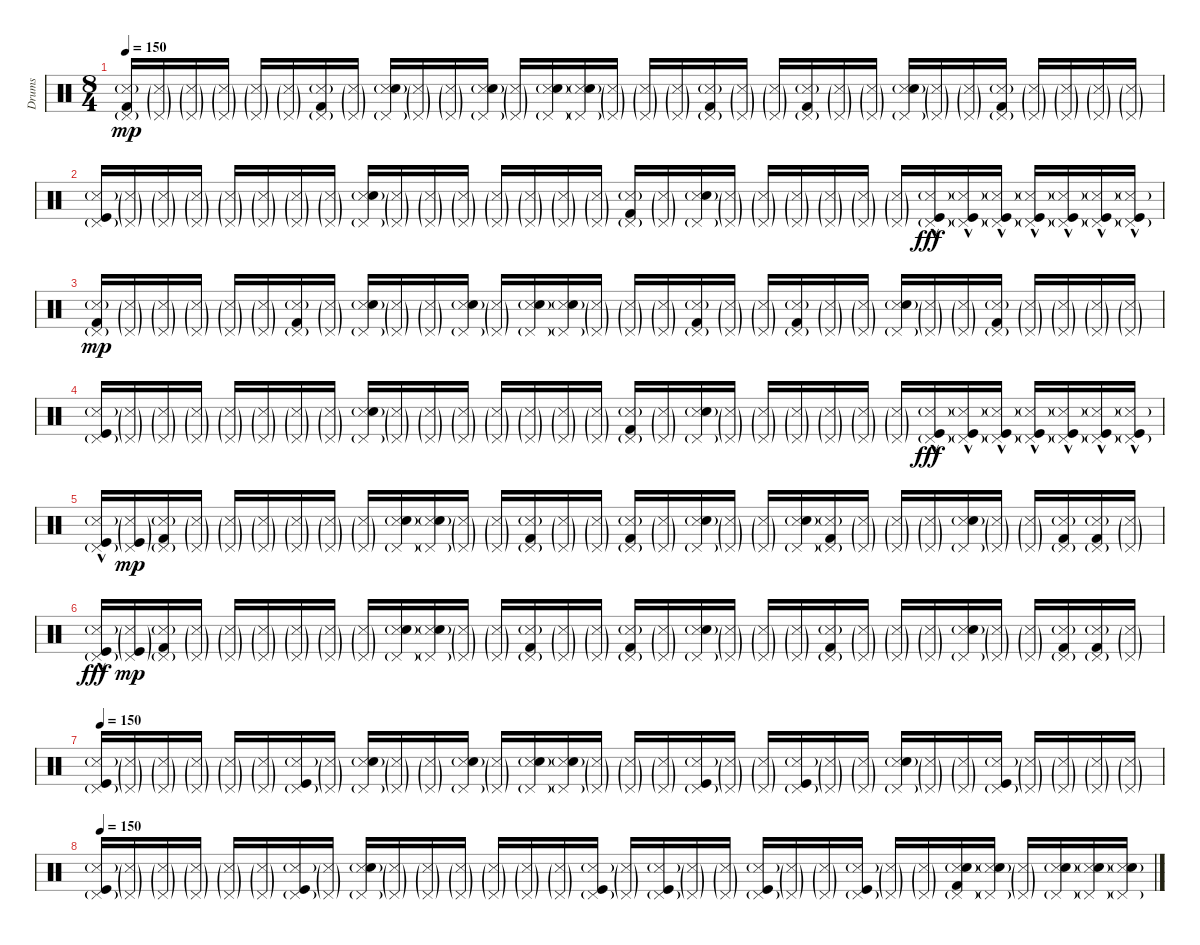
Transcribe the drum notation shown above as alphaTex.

\track ("Drums" "Drums") {instrument percussion}
\staff {score}
\articulation defaults
\ts (8 4)
\tempo 150
\clef neutral
\ks c
("Pedal Hi-Hat (hit)"{g} "Snare (side stick) 3"{g} "Kick (hit) 2").16{dy mp} ("Pedal Hi-Hat (hit)"{g} "Snare (side stick) 3"{g}).16 ("Pedal Hi-Hat (hit)"{g} "Snare (side stick) 3"{g}).16 ("Pedal Hi-Hat (hit)"{g} "Snare (side stick) 3"{g}).16 ("Pedal Hi-Hat (hit)"{g} "Snare (side stick) 3"{g}).16 ("Pedal Hi-Hat (hit)"{g} "Snare (side stick) 3"{g}).16 ("Pedal Hi-Hat (hit)"{g} "Snare (side stick) 3"{g} "Kick (hit) 2").16 ("Pedal Hi-Hat (hit)"{g} "Snare (side stick) 3"{g}).16 ("Pedal Hi-Hat (hit)"{g} "Snare (side stick) 3"{g} "Electric Snare (hit)").16 ("Pedal Hi-Hat (hit)"{g} "Snare (side stick) 3"{g}).16 ("Pedal Hi-Hat (hit)"{g} "Snare (side stick) 3"{g}).16 ("Pedal Hi-Hat (hit)"{g} "Snare (side stick) 3"{g} "Electric Snare (hit)").16 ("Pedal Hi-Hat (hit)"{g} "Snare (side stick) 3"{g}).16 ("Pedal Hi-Hat (hit)"{g} "Snare (side stick) 3"{g} "Electric Snare (hit)").16 ("Pedal Hi-Hat (hit)"{g} "Snare (side stick) 3"{g} "Electric Snare (hit)").16 ("Pedal Hi-Hat (hit)"{g} "Snare (side stick) 3"{g}).16 ("Pedal Hi-Hat (hit)"{g} "Snare (side stick) 3"{g}).16 ("Pedal Hi-Hat (hit)"{g} "Snare (side stick) 3"{g}).16 ("Pedal Hi-Hat (hit)"{g} "Snare (side stick) 3"{g} "Kick (hit) 2").16 ("Pedal Hi-Hat (hit)"{g} "Snare (side stick) 3"{g}).16 ("Pedal Hi-Hat (hit)"{g} "Snare (side stick) 3"{g}).16 ("Pedal Hi-Hat (hit)"{g} "Snare (side stick) 3"{g} "Kick (hit) 2").16 ("Pedal Hi-Hat (hit)"{g} "Snare (side stick) 3"{g}).16 ("Pedal Hi-Hat (hit)"{g} "Snare (side stick) 3"{g}).16 ("Pedal Hi-Hat (hit)"{g} "Snare (side stick) 3"{g} "Electric Snare (hit)").16 ("Pedal Hi-Hat (hit)"{g} "Snare (side stick) 3"{g}).16 ("Pedal Hi-Hat (hit)"{g} "Snare (side stick) 3"{g}).16 ("Pedal Hi-Hat (hit)"{g} "Snare (side stick) 3"{g} "Kick (hit) 2").16 ("Pedal Hi-Hat (hit)"{g} "Snare (side stick) 3"{g}).16 ("Pedal Hi-Hat (hit)"{g} "Snare (side stick) 3"{g}).16 ("Pedal Hi-Hat (hit)"{g} "Snare (side stick) 3"{g}).16 ("Pedal Hi-Hat (hit)"{g} "Snare (side stick) 3"{g}).16 |
("Pedal Hi-Hat (hit)"{g} "Snare (side stick) 3"{g} "Kick (hit)").16 ("Pedal Hi-Hat (hit)"{g} "Snare (side stick) 3"{g}).16 ("Pedal Hi-Hat (hit)"{g} "Snare (side stick) 3"{g}).16 ("Pedal Hi-Hat (hit)"{g} "Snare (side stick) 3"{g}).16 ("Pedal Hi-Hat (hit)"{g} "Snare (side stick) 3"{g}).16 ("Pedal Hi-Hat (hit)"{g} "Snare (side stick) 3"{g}).16 ("Pedal Hi-Hat (hit)"{g} "Snare (side stick) 3"{g}).16 ("Pedal Hi-Hat (hit)"{g} "Snare (side stick) 3"{g}).16 ("Pedal Hi-Hat (hit)"{g} "Snare (side stick) 3"{g} "Electric Snare (hit)").16 ("Pedal Hi-Hat (hit)"{g} "Snare (side stick) 3"{g}).16 ("Pedal Hi-Hat (hit)"{g} "Snare (side stick) 3"{g}).16 ("Pedal Hi-Hat (hit)"{g} "Snare (side stick) 3"{g}).16 ("Pedal Hi-Hat (hit)"{g} "Snare (side stick) 3"{g}).16 ("Pedal Hi-Hat (hit)"{g} "Snare (side stick) 3"{g}).16 ("Pedal Hi-Hat (hit)"{g} "Snare (side stick) 3"{g}).16 ("Pedal Hi-Hat (hit)"{g} "Snare (side stick) 3"{g}).16 ("Pedal Hi-Hat (hit)"{g} "Snare (side stick) 3"{g} "Kick (hit) 2").16 ("Pedal Hi-Hat (hit)"{g} "Snare (side stick) 3"{g}).16 ("Pedal Hi-Hat (hit)"{g} "Snare (side stick) 3"{g} "Electric Snare (hit)").16 ("Pedal Hi-Hat (hit)"{g} "Snare (side stick) 3"{g}).16 ("Pedal Hi-Hat (hit)"{g} "Snare (side stick) 3"{g}).16 ("Pedal Hi-Hat (hit)"{g} "Snare (side stick) 3"{g}).16 ("Pedal Hi-Hat (hit)"{g} "Snare (side stick) 3"{g}).16 ("Pedal Hi-Hat (hit)"{g} "Snare (side stick) 3"{g}).16 ("Pedal Hi-Hat (hit)"{g} "Snare (side stick) 3"{g}).16 ("Pedal Hi-Hat (hit)"{g} "Snare (side stick) 3"{g} "Kick (hit)"{hac}).16{dy fff} ("Pedal Hi-Hat (hit)"{g} "Snare (side stick) 3"{g} "Kick (hit)"{hac}).16 ("Pedal Hi-Hat (hit)"{g} "Snare (side stick) 3"{g} "Kick (hit)"{hac}).16 ("Pedal Hi-Hat (hit)"{g} "Snare (side stick) 3"{g} "Kick (hit)"{hac}).16 ("Pedal Hi-Hat (hit)"{g} "Snare (side stick) 3"{g} "Kick (hit)"{hac}).16 ("Pedal Hi-Hat (hit)"{g} "Snare (side stick) 3"{g} "Kick (hit)"{hac}).16 ("Pedal Hi-Hat (hit)"{g} "Snare (side stick) 3"{g} "Kick (hit)"{hac}).16 |
("Pedal Hi-Hat (hit)"{g} "Snare (side stick) 3"{g} "Kick (hit) 2").16{dy mp} ("Pedal Hi-Hat (hit)"{g} "Snare (side stick) 3"{g}).16 ("Pedal Hi-Hat (hit)"{g} "Snare (side stick) 3"{g}).16 ("Pedal Hi-Hat (hit)"{g} "Snare (side stick) 3"{g}).16 ("Pedal Hi-Hat (hit)"{g} "Snare (side stick) 3"{g}).16 ("Pedal Hi-Hat (hit)"{g} "Snare (side stick) 3"{g}).16 ("Pedal Hi-Hat (hit)"{g} "Snare (side stick) 3"{g} "Kick (hit) 2").16 ("Pedal Hi-Hat (hit)"{g} "Snare (side stick) 3"{g}).16 ("Pedal Hi-Hat (hit)"{g} "Snare (side stick) 3"{g} "Electric Snare (hit)").16 ("Pedal Hi-Hat (hit)"{g} "Snare (side stick) 3"{g}).16 ("Pedal Hi-Hat (hit)"{g} "Snare (side stick) 3"{g}).16 ("Pedal Hi-Hat (hit)"{g} "Snare (side stick) 3"{g} "Electric Snare (hit)").16 ("Pedal Hi-Hat (hit)"{g} "Snare (side stick) 3"{g}).16 ("Pedal Hi-Hat (hit)"{g} "Snare (side stick) 3"{g} "Electric Snare (hit)").16 ("Pedal Hi-Hat (hit)"{g} "Snare (side stick) 3"{g} "Electric Snare (hit)").16 ("Pedal Hi-Hat (hit)"{g} "Snare (side stick) 3"{g}).16 ("Pedal Hi-Hat (hit)"{g} "Snare (side stick) 3"{g}).16 ("Pedal Hi-Hat (hit)"{g} "Snare (side stick) 3"{g}).16 ("Pedal Hi-Hat (hit)"{g} "Snare (side stick) 3"{g} "Kick (hit) 2").16 ("Pedal Hi-Hat (hit)"{g} "Snare (side stick) 3"{g}).16 ("Pedal Hi-Hat (hit)"{g} "Snare (side stick) 3"{g}).16 ("Pedal Hi-Hat (hit)"{g} "Snare (side stick) 3"{g} "Kick (hit) 2").16 ("Pedal Hi-Hat (hit)"{g} "Snare (side stick) 3"{g}).16 ("Pedal Hi-Hat (hit)"{g} "Snare (side stick) 3"{g}).16 ("Pedal Hi-Hat (hit)"{g} "Snare (side stick) 3"{g} "Electric Snare (hit)").16 ("Pedal Hi-Hat (hit)"{g} "Snare (side stick) 3"{g}).16 ("Pedal Hi-Hat (hit)"{g} "Snare (side stick) 3"{g}).16 ("Pedal Hi-Hat (hit)"{g} "Snare (side stick) 3"{g} "Kick (hit) 2").16 ("Pedal Hi-Hat (hit)"{g} "Snare (side stick) 3"{g}).16 ("Pedal Hi-Hat (hit)"{g} "Snare (side stick) 3"{g}).16 ("Pedal Hi-Hat (hit)"{g} "Snare (side stick) 3"{g}).16 ("Pedal Hi-Hat (hit)"{g} "Snare (side stick) 3"{g}).16 |
("Pedal Hi-Hat (hit)"{g} "Snare (side stick) 3"{g} "Kick (hit)").16 ("Pedal Hi-Hat (hit)"{g} "Snare (side stick) 3"{g}).16 ("Pedal Hi-Hat (hit)"{g} "Snare (side stick) 3"{g}).16 ("Pedal Hi-Hat (hit)"{g} "Snare (side stick) 3"{g}).16 ("Pedal Hi-Hat (hit)"{g} "Snare (side stick) 3"{g}).16 ("Pedal Hi-Hat (hit)"{g} "Snare (side stick) 3"{g}).16 ("Pedal Hi-Hat (hit)"{g} "Snare (side stick) 3"{g}).16 ("Pedal Hi-Hat (hit)"{g} "Snare (side stick) 3"{g}).16 ("Pedal Hi-Hat (hit)"{g} "Snare (side stick) 3"{g} "Electric Snare (hit)").16 ("Pedal Hi-Hat (hit)"{g} "Snare (side stick) 3"{g}).16 ("Pedal Hi-Hat (hit)"{g} "Snare (side stick) 3"{g}).16 ("Pedal Hi-Hat (hit)"{g} "Snare (side stick) 3"{g}).16 ("Pedal Hi-Hat (hit)"{g} "Snare (side stick) 3"{g}).16 ("Pedal Hi-Hat (hit)"{g} "Snare (side stick) 3"{g}).16 ("Pedal Hi-Hat (hit)"{g} "Snare (side stick) 3"{g}).16 ("Pedal Hi-Hat (hit)"{g} "Snare (side stick) 3"{g}).16 ("Pedal Hi-Hat (hit)"{g} "Snare (side stick) 3"{g} "Kick (hit) 2").16 ("Pedal Hi-Hat (hit)"{g} "Snare (side stick) 3"{g}).16 ("Pedal Hi-Hat (hit)"{g} "Snare (side stick) 3"{g} "Electric Snare (hit)").16 ("Pedal Hi-Hat (hit)"{g} "Snare (side stick) 3"{g}).16 ("Pedal Hi-Hat (hit)"{g} "Snare (side stick) 3"{g}).16 ("Pedal Hi-Hat (hit)"{g} "Snare (side stick) 3"{g}).16 ("Pedal Hi-Hat (hit)"{g} "Snare (side stick) 3"{g}).16 ("Pedal Hi-Hat (hit)"{g} "Snare (side stick) 3"{g}).16 ("Pedal Hi-Hat (hit)"{g} "Snare (side stick) 3"{g}).16 ("Pedal Hi-Hat (hit)"{g} "Snare (side stick) 3"{g} "Kick (hit)"{hac}).16{dy fff} ("Pedal Hi-Hat (hit)"{g} "Snare (side stick) 3"{g} "Kick (hit)"{hac}).16 ("Pedal Hi-Hat (hit)"{g} "Snare (side stick) 3"{g} "Kick (hit)"{hac}).16 ("Pedal Hi-Hat (hit)"{g} "Snare (side stick) 3"{g} "Kick (hit)"{hac}).16 ("Pedal Hi-Hat (hit)"{g} "Snare (side stick) 3"{g} "Kick (hit)"{hac}).16 ("Pedal Hi-Hat (hit)"{g} "Snare (side stick) 3"{g} "Kick (hit)"{hac}).16 ("Pedal Hi-Hat (hit)"{g} "Snare (side stick) 3"{g} "Kick (hit)"{hac}).16 |
("Pedal Hi-Hat (hit)"{g} "Snare (side stick) 3"{g} "Kick (hit)"{hac}).16 ("Pedal Hi-Hat (hit)"{g} "Snare (side stick) 3"{g} "Kick (hit)"{g}).16{dy mp} ("Pedal Hi-Hat (hit)"{g} "Snare (side stick) 3"{g} "Kick (hit) 2").16 ("Pedal Hi-Hat (hit)"{g} "Snare (side stick) 3"{g}).16 ("Pedal Hi-Hat (hit)"{g} "Snare (side stick) 3"{g}).16 ("Pedal Hi-Hat (hit)"{g} "Snare (side stick) 3"{g}).16 ("Pedal Hi-Hat (hit)"{g} "Snare (side stick) 3"{g}).16 ("Pedal Hi-Hat (hit)"{g} "Snare (side stick) 3"{g}).16 ("Pedal Hi-Hat (hit)"{g} "Snare (side stick) 3"{g}).16 ("Pedal Hi-Hat (hit)"{g} "Snare (side stick) 3"{g} "Electric Snare (hit)").16 ("Pedal Hi-Hat (hit)"{g} "Snare (side stick) 3"{g} "Electric Snare (hit)").16 ("Pedal Hi-Hat (hit)"{g} "Snare (side stick) 3"{g}).16 ("Pedal Hi-Hat (hit)"{g} "Snare (side stick) 3"{g}).16 ("Pedal Hi-Hat (hit)"{g} "Snare (side stick) 3"{g} "Kick (hit) 2").16 ("Pedal Hi-Hat (hit)"{g} "Snare (side stick) 3"{g}).16 ("Pedal Hi-Hat (hit)"{g} "Snare (side stick) 3"{g}).16 ("Pedal Hi-Hat (hit)"{g} "Snare (side stick) 3"{g} "Kick (hit) 2").16 ("Pedal Hi-Hat (hit)"{g} "Snare (side stick) 3"{g}).16 ("Pedal Hi-Hat (hit)"{g} "Snare (side stick) 3"{g} "Electric Snare (hit)").16 ("Pedal Hi-Hat (hit)"{g} "Snare (side stick) 3"{g}).16 ("Pedal Hi-Hat (hit)"{g} "Snare (side stick) 3"{g}).16 ("Pedal Hi-Hat (hit)"{g} "Snare (side stick) 3"{g} "Electric Snare (hit)").16 ("Pedal Hi-Hat (hit)"{g} "Snare (side stick) 3"{g} "Kick (hit) 2").16 ("Pedal Hi-Hat (hit)"{g} "Snare (side stick) 3"{g}).16 ("Pedal Hi-Hat (hit)"{g} "Snare (side stick) 3"{g}).16 ("Pedal Hi-Hat (hit)"{g} "Snare (side stick) 3"{g}).16 ("Pedal Hi-Hat (hit)"{g} "Snare (side stick) 3"{g} "Electric Snare (hit)").16 ("Pedal Hi-Hat (hit)"{g} "Snare (side stick) 3"{g}).16 ("Pedal Hi-Hat (hit)"{g} "Snare (side stick) 3"{g}).16 ("Pedal Hi-Hat (hit)"{g} "Snare (side stick) 3"{g} "Kick (hit) 2").16 ("Pedal Hi-Hat (hit)"{g} "Snare (side stick) 3"{g} "Kick (hit) 2").16 ("Pedal Hi-Hat (hit)"{g} "Snare (side stick) 3"{g}).16 |
("Pedal Hi-Hat (hit)"{g} "Snare (side stick) 3"{g} "Kick (hit)"{hac}).16{dy fff} ("Pedal Hi-Hat (hit)"{g} "Snare (side stick) 3"{g} "Kick (hit)"{g}).16{dy mp} ("Pedal Hi-Hat (hit)"{g} "Snare (side stick) 3"{g} "Kick (hit) 2").16 ("Pedal Hi-Hat (hit)"{g} "Snare (side stick) 3"{g}).16 ("Pedal Hi-Hat (hit)"{g} "Snare (side stick) 3"{g}).16 ("Pedal Hi-Hat (hit)"{g} "Snare (side stick) 3"{g}).16 ("Pedal Hi-Hat (hit)"{g} "Snare (side stick) 3"{g}).16 ("Pedal Hi-Hat (hit)"{g} "Snare (side stick) 3"{g}).16 ("Pedal Hi-Hat (hit)"{g} "Snare (side stick) 3"{g}).16 ("Pedal Hi-Hat (hit)"{g} "Snare (side stick) 3"{g} "Electric Snare (hit)").16 ("Pedal Hi-Hat (hit)"{g} "Snare (side stick) 3"{g} "Electric Snare (hit)").16 ("Pedal Hi-Hat (hit)"{g} "Snare (side stick) 3"{g}).16 ("Pedal Hi-Hat (hit)"{g} "Snare (side stick) 3"{g}).16 ("Pedal Hi-Hat (hit)"{g} "Snare (side stick) 3"{g} "Kick (hit) 2").16 ("Pedal Hi-Hat (hit)"{g} "Snare (side stick) 3"{g}).16 ("Pedal Hi-Hat (hit)"{g} "Snare (side stick) 3"{g}).16 ("Pedal Hi-Hat (hit)"{g} "Snare (side stick) 3"{g} "Kick (hit) 2").16 ("Pedal Hi-Hat (hit)"{g} "Snare (side stick) 3"{g}).16 ("Pedal Hi-Hat (hit)"{g} "Snare (side stick) 3"{g} "Electric Snare (hit)").16 ("Pedal Hi-Hat (hit)"{g} "Snare (side stick) 3"{g}).16 ("Pedal Hi-Hat (hit)"{g} "Snare (side stick) 3"{g}).16 ("Pedal Hi-Hat (hit)"{g} "Snare (side stick) 3"{g}).16 ("Pedal Hi-Hat (hit)"{g} "Snare (side stick) 3"{g} "Kick (hit) 2").16 ("Pedal Hi-Hat (hit)"{g} "Snare (side stick) 3"{g}).16 ("Pedal Hi-Hat (hit)"{g} "Snare (side stick) 3"{g}).16 ("Pedal Hi-Hat (hit)"{g} "Snare (side stick) 3"{g}).16 ("Pedal Hi-Hat (hit)"{g} "Snare (side stick) 3"{g} "Electric Snare (hit)").16 ("Pedal Hi-Hat (hit)"{g} "Snare (side stick) 3"{g}).16 ("Pedal Hi-Hat (hit)"{g} "Snare (side stick) 3"{g}).16 ("Pedal Hi-Hat (hit)"{g} "Snare (side stick) 3"{g} "Kick (hit) 2").16 ("Pedal Hi-Hat (hit)"{g} "Snare (side stick) 3"{g} "Kick (hit) 2").16 ("Pedal Hi-Hat (hit)"{g} "Snare (side stick) 3"{g}).16 |
\tempo 150
("Pedal Hi-Hat (hit)"{g} "Snare (side stick) 3"{g} "Kick (hit)").16 ("Pedal Hi-Hat (hit)"{g} "Snare (side stick) 3"{g}).16 ("Pedal Hi-Hat (hit)"{g} "Snare (side stick) 3"{g}).16 ("Pedal Hi-Hat (hit)"{g} "Snare (side stick) 3"{g}).16 ("Pedal Hi-Hat (hit)"{g} "Snare (side stick) 3"{g}).16 ("Pedal Hi-Hat (hit)"{g} "Snare (side stick) 3"{g}).16 ("Pedal Hi-Hat (hit)"{g} "Snare (side stick) 3"{g} "Kick (hit)").16 ("Pedal Hi-Hat (hit)"{g} "Snare (side stick) 3"{g}).16 ("Pedal Hi-Hat (hit)"{g} "Snare (side stick) 3"{g} "Electric Snare (hit)").16 ("Pedal Hi-Hat (hit)"{g} "Snare (side stick) 3"{g}).16 ("Pedal Hi-Hat (hit)"{g} "Snare (side stick) 3"{g}).16 ("Pedal Hi-Hat (hit)"{g} "Snare (side stick) 3"{g} "Electric Snare (hit)").16 ("Pedal Hi-Hat (hit)"{g} "Snare (side stick) 3"{g}).16 ("Pedal Hi-Hat (hit)"{g} "Snare (side stick) 3"{g} "Electric Snare (hit)").16 ("Pedal Hi-Hat (hit)"{g} "Snare (side stick) 3"{g} "Electric Snare (hit)").16 ("Pedal Hi-Hat (hit)"{g} "Snare (side stick) 3"{g}).16 ("Pedal Hi-Hat (hit)"{g} "Snare (side stick) 3"{g}).16 ("Pedal Hi-Hat (hit)"{g} "Snare (side stick) 3"{g}).16 ("Pedal Hi-Hat (hit)"{g} "Snare (side stick) 3"{g} "Kick (hit)").16 ("Pedal Hi-Hat (hit)"{g} "Snare (side stick) 3"{g}).16 ("Pedal Hi-Hat (hit)"{g} "Snare (side stick) 3"{g}).16 ("Pedal Hi-Hat (hit)"{g} "Snare (side stick) 3"{g} "Kick (hit)").16 ("Pedal Hi-Hat (hit)"{g} "Snare (side stick) 3"{g}).16 ("Pedal Hi-Hat (hit)"{g} "Snare (side stick) 3"{g}).16 ("Pedal Hi-Hat (hit)"{g} "Snare (side stick) 3"{g} "Electric Snare (hit)").16 ("Pedal Hi-Hat (hit)"{g} "Snare (side stick) 3"{g}).16 ("Pedal Hi-Hat (hit)"{g} "Snare (side stick) 3"{g}).16 ("Pedal Hi-Hat (hit)"{g} "Snare (side stick) 3"{g} "Kick (hit)").16 ("Pedal Hi-Hat (hit)"{g} "Snare (side stick) 3"{g}).16 ("Pedal Hi-Hat (hit)"{g} "Snare (side stick) 3"{g}).16 ("Pedal Hi-Hat (hit)"{g} "Snare (side stick) 3"{g}).16 ("Pedal Hi-Hat (hit)"{g} "Snare (side stick) 3"{g}).16 |
\tempo 150
("Pedal Hi-Hat (hit)"{g} "Snare (side stick) 3"{g} "Kick (hit)").16 ("Pedal Hi-Hat (hit)"{g} "Snare (side stick) 3"{g}).16 ("Pedal Hi-Hat (hit)"{g} "Snare (side stick) 3"{g}).16 ("Pedal Hi-Hat (hit)"{g} "Snare (side stick) 3"{g}).16 ("Pedal Hi-Hat (hit)"{g} "Snare (side stick) 3"{g}).16 ("Pedal Hi-Hat (hit)"{g} "Snare (side stick) 3"{g}).16 ("Pedal Hi-Hat (hit)"{g} "Snare (side stick) 3"{g} "Kick (hit)").16 ("Pedal Hi-Hat (hit)"{g} "Snare (side stick) 3"{g}).16 ("Pedal Hi-Hat (hit)"{g} "Snare (side stick) 3"{g} "Electric Snare (hit)").16 ("Pedal Hi-Hat (hit)"{g} "Snare (side stick) 3"{g}).16 ("Pedal Hi-Hat (hit)"{g} "Snare (side stick) 3"{g}).16 ("Pedal Hi-Hat (hit)"{g} "Snare (side stick) 3"{g}).16 ("Pedal Hi-Hat (hit)"{g} "Snare (side stick) 3"{g}).16 ("Pedal Hi-Hat (hit)"{g} "Snare (side stick) 3"{g}).16 ("Pedal Hi-Hat (hit)"{g} "Snare (side stick) 3"{g}).16 ("Pedal Hi-Hat (hit)"{g} "Snare (side stick) 3"{g} "Kick (hit)").16 ("Pedal Hi-Hat (hit)"{g} "Snare (side stick) 3"{g}).16 ("Pedal Hi-Hat (hit)"{g} "Snare (side stick) 3"{g} "Kick (hit)").16 ("Pedal Hi-Hat (hit)"{g} "Snare (side stick) 3"{g}).16 ("Pedal Hi-Hat (hit)"{g} "Snare (side stick) 3"{g}).16 ("Pedal Hi-Hat (hit)"{g} "Snare (side stick) 3"{g} "Kick (hit)").16 ("Pedal Hi-Hat (hit)"{g} "Snare (side stick) 3"{g}).16 ("Pedal Hi-Hat (hit)"{g} "Snare (side stick) 3"{g}).16 ("Pedal Hi-Hat (hit)"{g} "Snare (side stick) 3"{g} "Kick (hit)").16 ("Pedal Hi-Hat (hit)"{g} "Snare (side stick) 3"{g}).16 ("Pedal Hi-Hat (hit)"{g} "Snare (side stick) 3"{g}).16 ("Pedal Hi-Hat (hit)"{g} "Snare (side stick) 3"{g} "Electric Snare (hit)" "Kick (hit) 2").16 ("Pedal Hi-Hat (hit)"{g} "Snare (side stick) 3"{g} "Electric Snare (hit)").16 ("Pedal Hi-Hat (hit)"{g} "Snare (side stick) 3"{g}).16 ("Pedal Hi-Hat (hit)"{g} "Snare (side stick) 3"{g} "Electric Snare (hit)").16 ("Pedal Hi-Hat (hit)"{g} "Snare (side stick) 3"{g} "Electric Snare (hit)").16 ("Pedal Hi-Hat (hit)"{g} "Snare (side stick) 3"{g} "Electric Snare (hit)").16
